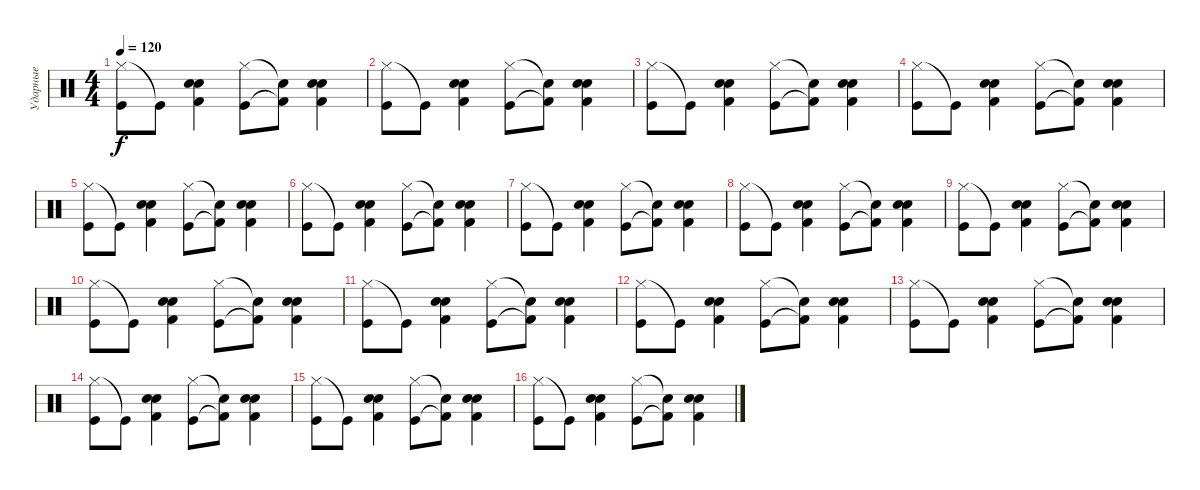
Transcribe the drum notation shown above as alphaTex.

\track ("Ударные" "Ударные") {instrument percussion}
\staff {score}
\articulation defaults
\ts (4 4)
\tempo 120
\clef neutral
\ks c
("Hi-Hat (closed)" "Kick (hit)").8{dy f volume 11} "Kick (hit)"{t}.8 ("Snare (hit) 2" "Kick (hit) 2" "Electric Snare (hit)").4 ("Hi-Hat (closed)" "Kick (hit)").8 ("Snare (hit) 2"{t} "Kick (hit) 2"{t}).8 ("Snare (hit) 2" "Kick (hit) 2" "Electric Snare (hit)").4 |
("Hi-Hat (closed)" "Kick (hit)").8 "Kick (hit)"{t}.8 ("Snare (hit) 2" "Kick (hit) 2" "Electric Snare (hit)").4 ("Hi-Hat (closed)" "Kick (hit)").8 ("Snare (hit) 2"{t} "Kick (hit) 2"{t}).8 ("Snare (hit) 2" "Kick (hit) 2" "Electric Snare (hit)").4 |
("Hi-Hat (closed)" "Kick (hit)").8 "Kick (hit)"{t}.8 ("Snare (hit) 2" "Kick (hit) 2" "Electric Snare (hit)").4 ("Hi-Hat (closed)" "Kick (hit)").8 ("Snare (hit) 2"{t} "Kick (hit) 2"{t}).8 ("Snare (hit) 2" "Kick (hit) 2" "Electric Snare (hit)").4 |
("Hi-Hat (closed)" "Kick (hit)").8 "Kick (hit)"{t}.8 ("Snare (hit) 2" "Kick (hit) 2" "Electric Snare (hit)").4 ("Hi-Hat (closed)" "Kick (hit)").8 ("Snare (hit) 2"{t} "Kick (hit) 2"{t}).8 ("Snare (hit) 2" "Kick (hit) 2" "Electric Snare (hit)").4 |
("Hi-Hat (closed)" "Kick (hit)").8 "Kick (hit)"{t}.8 ("Snare (hit) 2" "Kick (hit) 2" "Electric Snare (hit)").4 ("Hi-Hat (closed)" "Kick (hit)").8 ("Snare (hit) 2"{t} "Kick (hit) 2"{t}).8 ("Snare (hit) 2" "Kick (hit) 2" "Electric Snare (hit)").4 |
("Hi-Hat (closed)" "Kick (hit)").8 "Kick (hit)"{t}.8 ("Snare (hit) 2" "Kick (hit) 2" "Electric Snare (hit)").4 ("Hi-Hat (closed)" "Kick (hit)").8 ("Snare (hit) 2"{t} "Kick (hit) 2"{t}).8 ("Snare (hit) 2" "Kick (hit) 2" "Electric Snare (hit)").4 |
("Hi-Hat (closed)" "Kick (hit)").8 "Kick (hit)"{t}.8 ("Snare (hit) 2" "Kick (hit) 2" "Electric Snare (hit)").4 ("Hi-Hat (closed)" "Kick (hit)").8 ("Snare (hit) 2"{t} "Kick (hit) 2"{t}).8 ("Snare (hit) 2" "Kick (hit) 2" "Electric Snare (hit)").4 |
("Hi-Hat (closed)" "Kick (hit)").8 "Kick (hit)"{t}.8 ("Snare (hit) 2" "Kick (hit) 2" "Electric Snare (hit)").4 ("Hi-Hat (closed)" "Kick (hit)").8 ("Snare (hit) 2"{t} "Kick (hit) 2"{t}).8 ("Snare (hit) 2" "Kick (hit) 2" "Electric Snare (hit)").4 |
("Hi-Hat (closed)" "Kick (hit)").8 "Kick (hit)"{t}.8 ("Snare (hit) 2" "Kick (hit) 2" "Electric Snare (hit)").4 ("Hi-Hat (closed)" "Kick (hit)").8 ("Snare (hit) 2"{t} "Kick (hit) 2"{t}).8 ("Snare (hit) 2" "Kick (hit) 2" "Electric Snare (hit)").4 |
("Hi-Hat (closed)" "Kick (hit)").8 "Kick (hit)"{t}.8 ("Snare (hit) 2" "Kick (hit) 2" "Electric Snare (hit)").4 ("Hi-Hat (closed)" "Kick (hit)").8 ("Snare (hit) 2"{t} "Kick (hit) 2"{t}).8 ("Snare (hit) 2" "Kick (hit) 2" "Electric Snare (hit)").4 |
("Hi-Hat (closed)" "Kick (hit)").8 "Kick (hit)"{t}.8 ("Snare (hit) 2" "Kick (hit) 2" "Electric Snare (hit)").4 ("Hi-Hat (closed)" "Kick (hit)").8 ("Snare (hit) 2"{t} "Kick (hit) 2"{t}).8 ("Snare (hit) 2" "Kick (hit) 2" "Electric Snare (hit)").4 |
("Hi-Hat (closed)" "Kick (hit)").8 "Kick (hit)"{t}.8 ("Snare (hit) 2" "Kick (hit) 2" "Electric Snare (hit)").4 ("Hi-Hat (closed)" "Kick (hit)").8 ("Snare (hit) 2"{t} "Kick (hit) 2"{t}).8 ("Snare (hit) 2" "Kick (hit) 2" "Electric Snare (hit)").4 |
("Hi-Hat (closed)" "Kick (hit)").8 "Kick (hit)"{t}.8 ("Snare (hit) 2" "Kick (hit) 2" "Electric Snare (hit)").4 ("Hi-Hat (closed)" "Kick (hit)").8 ("Snare (hit) 2"{t} "Kick (hit) 2"{t}).8 ("Snare (hit) 2" "Kick (hit) 2" "Electric Snare (hit)").4 |
("Hi-Hat (closed)" "Kick (hit)").8 "Kick (hit)"{t}.8 ("Snare (hit) 2" "Kick (hit) 2" "Electric Snare (hit)").4 ("Hi-Hat (closed)" "Kick (hit)").8 ("Snare (hit) 2"{t} "Kick (hit) 2"{t}).8 ("Snare (hit) 2" "Kick (hit) 2" "Electric Snare (hit)").4 |
("Hi-Hat (closed)" "Kick (hit)").8 "Kick (hit)"{t}.8 ("Snare (hit) 2" "Kick (hit) 2" "Electric Snare (hit)").4 ("Hi-Hat (closed)" "Kick (hit)").8 ("Snare (hit) 2"{t} "Kick (hit) 2"{t}).8 ("Snare (hit) 2" "Kick (hit) 2" "Electric Snare (hit)").4 |
("Hi-Hat (closed)" "Kick (hit)").8 "Kick (hit)"{t}.8 ("Snare (hit) 2" "Kick (hit) 2" "Electric Snare (hit)").4 ("Hi-Hat (closed)" "Kick (hit)").8 ("Snare (hit) 2"{t} "Kick (hit) 2"{t}).8 ("Snare (hit) 2" "Kick (hit) 2" "Electric Snare (hit)").4
